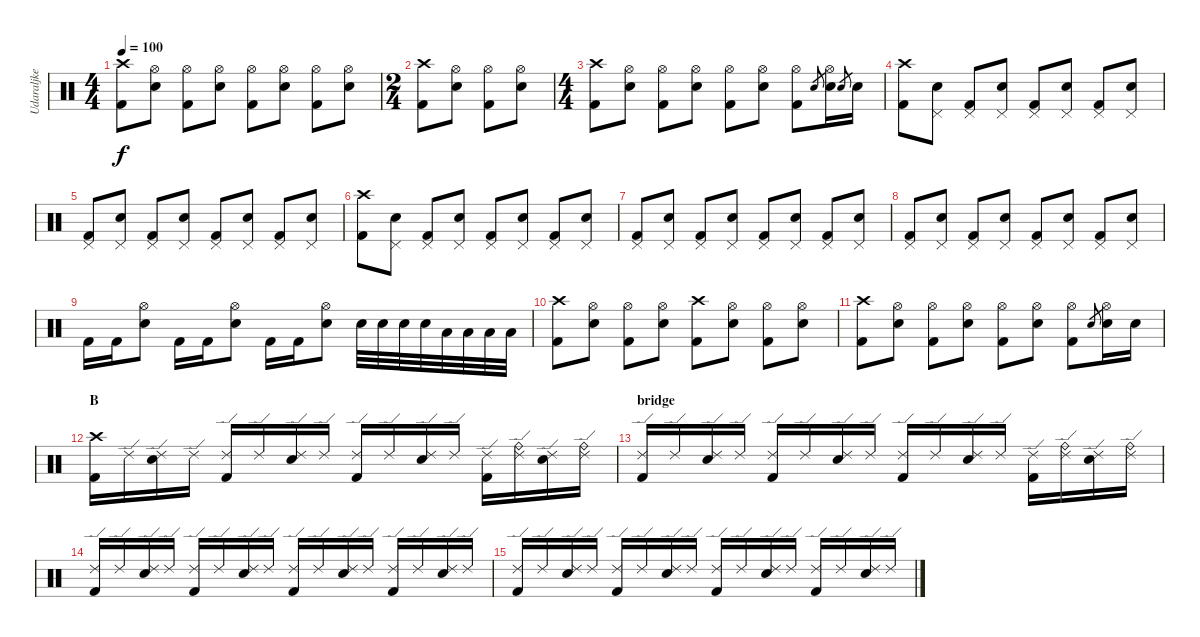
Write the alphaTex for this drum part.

\track ("Udaraljke" "Udaraljke") {instrument percussion}
\staff {score}
\articulation defaults
\ts (4 4)
\tempo 100
\clef neutral
\ks c
("Crash high (hit)" "Kick (hit) 2").8{dy f} ("Hi-Hat (open)" "Electric Snare (hit)").8 ("Hi-Hat (open)" "Kick (hit) 2").8 ("Hi-Hat (open)" "Electric Snare (hit)").8 ("Hi-Hat (open)" "Kick (hit) 2").8 ("Hi-Hat (open)" "Electric Snare (hit)").8 ("Hi-Hat (open)" "Kick (hit) 2").8 ("Hi-Hat (open)" "Electric Snare (hit)").8 |
\ts (2 4)
("Crash high (hit)" "Kick (hit) 2").8 ("Hi-Hat (open)" "Electric Snare (hit)").8 ("Hi-Hat (open)" "Kick (hit) 2").8 ("Hi-Hat (open)" "Electric Snare (hit)").8 |
\ts (4 4)
("Crash high (hit)" "Kick (hit) 2").8 ("Hi-Hat (open)" "Electric Snare (hit)").8 ("Hi-Hat (open)" "Kick (hit) 2").8 ("Hi-Hat (open)" "Electric Snare (hit)").8 ("Hi-Hat (open)" "Kick (hit) 2").8 ("Hi-Hat (open)" "Electric Snare (hit)").8 ("Hi-Hat (open)" "Kick (hit) 2").8 "Electric Snare (hit)".8{gr} ("Hi-Hat (open)" "Electric Snare (hit)").16 "Electric Snare (hit)".8{gr} "Electric Snare (hit)".16 |
("Crash high (hit)" "Kick (hit) 2").8 ("Pedal Hi-Hat (hit)" "Electric Snare (hit)").8 ("Pedal Hi-Hat (hit)" "Kick (hit) 2").8 ("Pedal Hi-Hat (hit)" "Electric Snare (hit)").8 ("Pedal Hi-Hat (hit)" "Kick (hit) 2").8 ("Pedal Hi-Hat (hit)" "Electric Snare (hit)").8 ("Pedal Hi-Hat (hit)" "Kick (hit) 2").8 ("Pedal Hi-Hat (hit)" "Electric Snare (hit)").8 |
("Pedal Hi-Hat (hit)" "Kick (hit) 2").8 ("Pedal Hi-Hat (hit)" "Electric Snare (hit)").8 ("Pedal Hi-Hat (hit)" "Kick (hit) 2").8 ("Pedal Hi-Hat (hit)" "Electric Snare (hit)").8 ("Pedal Hi-Hat (hit)" "Kick (hit) 2").8 ("Pedal Hi-Hat (hit)" "Electric Snare (hit)").8 ("Pedal Hi-Hat (hit)" "Kick (hit) 2").8 ("Pedal Hi-Hat (hit)" "Electric Snare (hit)").8 |
("Crash high (hit)" "Kick (hit) 2").8 ("Pedal Hi-Hat (hit)" "Electric Snare (hit)").8 ("Pedal Hi-Hat (hit)" "Kick (hit) 2").8 ("Pedal Hi-Hat (hit)" "Electric Snare (hit)").8 ("Pedal Hi-Hat (hit)" "Kick (hit) 2").8 ("Pedal Hi-Hat (hit)" "Electric Snare (hit)").8 ("Pedal Hi-Hat (hit)" "Kick (hit) 2").8 ("Pedal Hi-Hat (hit)" "Electric Snare (hit)").8 |
("Pedal Hi-Hat (hit)" "Kick (hit) 2").8 ("Pedal Hi-Hat (hit)" "Electric Snare (hit)").8 ("Pedal Hi-Hat (hit)" "Kick (hit) 2").8 ("Pedal Hi-Hat (hit)" "Electric Snare (hit)").8 ("Pedal Hi-Hat (hit)" "Kick (hit) 2").8 ("Pedal Hi-Hat (hit)" "Electric Snare (hit)").8 ("Pedal Hi-Hat (hit)" "Kick (hit) 2").8 ("Pedal Hi-Hat (hit)" "Electric Snare (hit)").8 |
("Pedal Hi-Hat (hit)" "Kick (hit) 2").8 ("Pedal Hi-Hat (hit)" "Electric Snare (hit)").8 ("Pedal Hi-Hat (hit)" "Kick (hit) 2").8 ("Pedal Hi-Hat (hit)" "Electric Snare (hit)").8 ("Pedal Hi-Hat (hit)" "Kick (hit) 2").8 ("Pedal Hi-Hat (hit)" "Electric Snare (hit)").8 ("Pedal Hi-Hat (hit)" "Kick (hit) 2").8 ("Pedal Hi-Hat (hit)" "Electric Snare (hit)").8 |
"Kick (hit) 2".16 "Kick (hit) 2".16 ("Hi-Hat (open)" "Electric Snare (hit)").8 "Kick (hit) 2".16 "Kick (hit) 2".16 ("Hi-Hat (open)" "Electric Snare (hit)").8 "Kick (hit) 2".16 "Kick (hit) 2".16 ("Hi-Hat (open)" "Electric Snare (hit)").8 "Electric Snare (hit)".32 "Electric Snare (hit)".32 "Electric Snare (hit)".32 "Electric Snare (hit)".32 "Low Tom (hit)".32 "Low Tom (hit)".32 "Low Tom (hit)".32 "Low Tom (hit)".32 |
("Crash high (hit)" "Kick (hit) 2").8 ("Hi-Hat (open)" "Electric Snare (hit)").8 ("Hi-Hat (open)" "Kick (hit) 2").8 ("Hi-Hat (open)" "Electric Snare (hit)").8 ("Crash high (hit)" "Kick (hit) 2").8 ("Hi-Hat (open)" "Electric Snare (hit)").8 ("Hi-Hat (open)" "Kick (hit) 2").8 ("Hi-Hat (open)" "Electric Snare (hit)").8 |
("Crash high (hit)" "Kick (hit) 2").8 ("Hi-Hat (open)" "Electric Snare (hit)").8 ("Hi-Hat (open)" "Kick (hit) 2").8 ("Hi-Hat (open)" "Electric Snare (hit)").8 ("Hi-Hat (open)" "Kick (hit) 2").8 ("Hi-Hat (open)" "Electric Snare (hit)").8 ("Hi-Hat (open)" "Kick (hit) 2").8 "Electric Snare (hit)".8{gr} ("Hi-Hat (open)" "Electric Snare (hit)").16 "Electric Snare (hit)".16 |
\section ("" "B")
("Crash high (hit)" "Kick (hit) 2").16 "Ride (edge) 2".16 ("Ride (edge) 2" "Electric Snare (hit)").16 "Ride (edge) 2".16 ("Ride (edge) 2" "Kick (hit) 2").16 "Ride (edge) 2".16 ("Ride (edge) 2" "Electric Snare (hit)").16 "Ride (edge) 2".16 ("Ride (edge) 2" "Kick (hit) 2").16 "Ride (edge) 2".16 ("Ride (edge) 2" "Electric Snare (hit)").16 "Ride (edge) 2".16 ("Ride (edge) 2" "Kick (hit) 2").16 ("Ride (bell)" "Ride (edge) 2").16 ("Ride (edge) 2" "Electric Snare (hit)").16 ("Ride (bell)" "Ride (edge) 2").16 |
\section ("" "bridge")
("Ride (edge) 2" "Kick (hit) 2").16 "Ride (edge) 2".16 ("Ride (edge) 2" "Electric Snare (hit)").16 "Ride (edge) 2".16 ("Ride (edge) 2" "Kick (hit) 2").16 "Ride (edge) 2".16 ("Ride (edge) 2" "Electric Snare (hit)").16 "Ride (edge) 2".16 ("Ride (edge) 2" "Kick (hit) 2").16 "Ride (edge) 2".16 ("Ride (edge) 2" "Electric Snare (hit)").16 "Ride (edge) 2".16 ("Ride (edge) 2" "Kick (hit) 2").16 ("Ride (bell)" "Ride (edge) 2").16 ("Ride (edge) 2" "Electric Snare (hit)").16 ("Ride (bell)" "Ride (edge) 2").16 |
("Ride (edge) 2" "Kick (hit) 2").16 "Ride (edge) 2".16 ("Ride (edge) 2" "Electric Snare (hit)").16 "Ride (edge) 2".16 ("Ride (edge) 2" "Kick (hit) 2").16 "Ride (edge) 2".16 ("Ride (edge) 2" "Electric Snare (hit)").16 "Ride (edge) 2".16 ("Ride (edge) 2" "Kick (hit) 2").16 "Ride (edge) 2".16 ("Ride (edge) 2" "Electric Snare (hit)").16 "Ride (edge) 2".16 ("Ride (edge) 2" "Kick (hit) 2").16 "Ride (edge) 2".16 ("Ride (edge) 2" "Electric Snare (hit)").16 "Ride (edge) 2".16 |
("Ride (edge) 2" "Kick (hit) 2").16 "Ride (edge) 2".16 ("Ride (edge) 2" "Electric Snare (hit)").16 "Ride (edge) 2".16 ("Ride (edge) 2" "Kick (hit) 2").16 "Ride (edge) 2".16 ("Ride (edge) 2" "Electric Snare (hit)").16 "Ride (edge) 2".16 ("Ride (edge) 2" "Kick (hit) 2").16 "Ride (edge) 2".16 ("Ride (edge) 2" "Electric Snare (hit)").16 "Ride (edge) 2".16 ("Ride (edge) 2" "Kick (hit) 2").16 "Ride (edge) 2".16 ("Ride (edge) 2" "Electric Snare (hit)").16 "Ride (edge) 2".16
